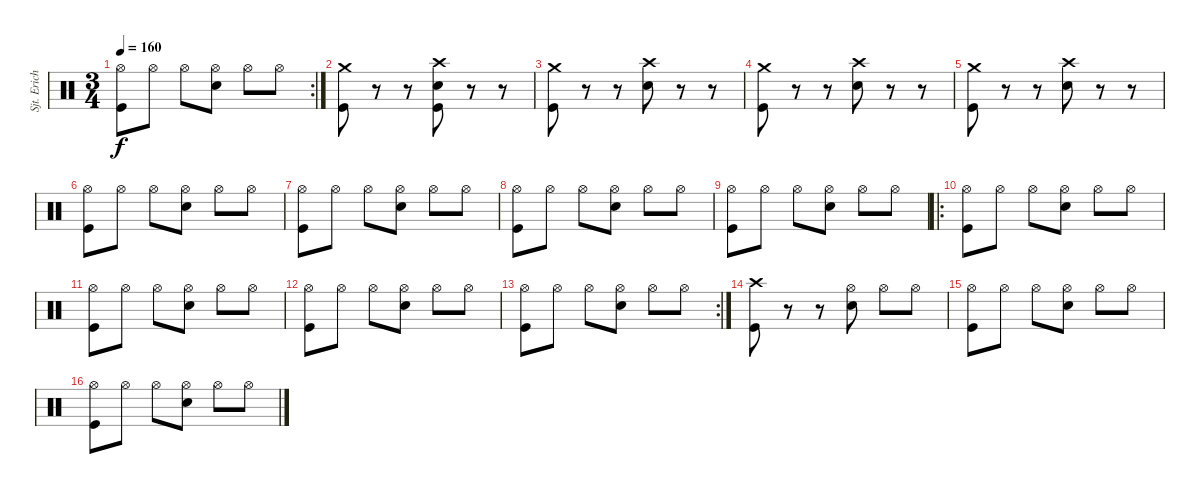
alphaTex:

\track ("Sjt. Erichsen" "Sjt. Erich") {instrument percussion}
\staff {score}
\articulation defaults
\rc 2
\ts (3 4)
\tempo 160
\clef neutral
\ks c
("Hi-Hat (open)" "Kick (hit)").8{dy f} "Hi-Hat (open)".8 "Hi-Hat (open)".8 ("Hi-Hat (open)" "Electric Snare (hit)").8 "Hi-Hat (open)".8 "Hi-Hat (open)".8 |
("Crash medium (hit)" "Kick (hit)").8 r.8 r.8 ("Crash high (hit)" "Electric Snare (hit)" "Kick (hit)").8 r.8 r.8 |
("Crash medium (hit)" "Kick (hit)").8 r.8 r.8 ("Crash high (hit)" "Electric Snare (hit)").8 r.8 r.8 |
("Crash medium (hit)" "Kick (hit)").8 r.8 r.8 ("Crash high (hit)" "Electric Snare (hit)").8 r.8 r.8 |
("Crash medium (hit)" "Kick (hit)").8 r.8 r.8 ("Crash high (hit)" "Electric Snare (hit)").8 r.8 r.8 |
("Hi-Hat (open)" "Kick (hit)").8 "Hi-Hat (open)".8 "Hi-Hat (open)".8 ("Hi-Hat (open)" "Electric Snare (hit)").8 "Hi-Hat (open)".8 "Hi-Hat (open)".8 |
("Hi-Hat (open)" "Kick (hit)").8 "Hi-Hat (open)".8 "Hi-Hat (open)".8 ("Hi-Hat (open)" "Electric Snare (hit)").8 "Hi-Hat (open)".8 "Hi-Hat (open)".8 |
("Hi-Hat (open)" "Kick (hit)").8 "Hi-Hat (open)".8 "Hi-Hat (open)".8 ("Hi-Hat (open)" "Electric Snare (hit)").8 "Hi-Hat (open)".8 "Hi-Hat (open)".8 |
("Hi-Hat (open)" "Kick (hit)").8 "Hi-Hat (open)".8 "Hi-Hat (open)".8 ("Hi-Hat (open)" "Electric Snare (hit)").8 "Hi-Hat (open)".8 "Hi-Hat (open)".8 |
\ro
("Hi-Hat (open)" "Kick (hit)").8 "Hi-Hat (open)".8 "Hi-Hat (open)".8 ("Hi-Hat (open)" "Electric Snare (hit)").8 "Hi-Hat (open)".8 "Hi-Hat (open)".8 |
("Hi-Hat (open)" "Kick (hit)").8 "Hi-Hat (open)".8 "Hi-Hat (open)".8 ("Hi-Hat (open)" "Electric Snare (hit)").8 "Hi-Hat (open)".8 "Hi-Hat (open)".8 |
("Hi-Hat (open)" "Kick (hit)").8 "Hi-Hat (open)".8 "Hi-Hat (open)".8 ("Hi-Hat (open)" "Electric Snare (hit)").8 "Hi-Hat (open)".8 "Hi-Hat (open)".8 |
\rc 2
("Hi-Hat (open)" "Kick (hit)").8 "Hi-Hat (open)".8 "Hi-Hat (open)".8 ("Hi-Hat (open)" "Electric Snare (hit)").8 "Hi-Hat (open)".8 "Hi-Hat (open)".8 |
("Crash high (hit)" "Kick (hit)").8 r.8 r.8 ("Hi-Hat (open)" "Electric Snare (hit)").8 "Hi-Hat (open)".8 "Hi-Hat (open)".8 |
("Hi-Hat (open)" "Kick (hit)").8 "Hi-Hat (open)".8 "Hi-Hat (open)".8 ("Hi-Hat (open)" "Electric Snare (hit)").8 "Hi-Hat (open)".8 "Hi-Hat (open)".8 |
("Hi-Hat (open)" "Kick (hit)").8 "Hi-Hat (open)".8 "Hi-Hat (open)".8 ("Hi-Hat (open)" "Electric Snare (hit)").8 "Hi-Hat (open)".8 "Hi-Hat (open)".8
